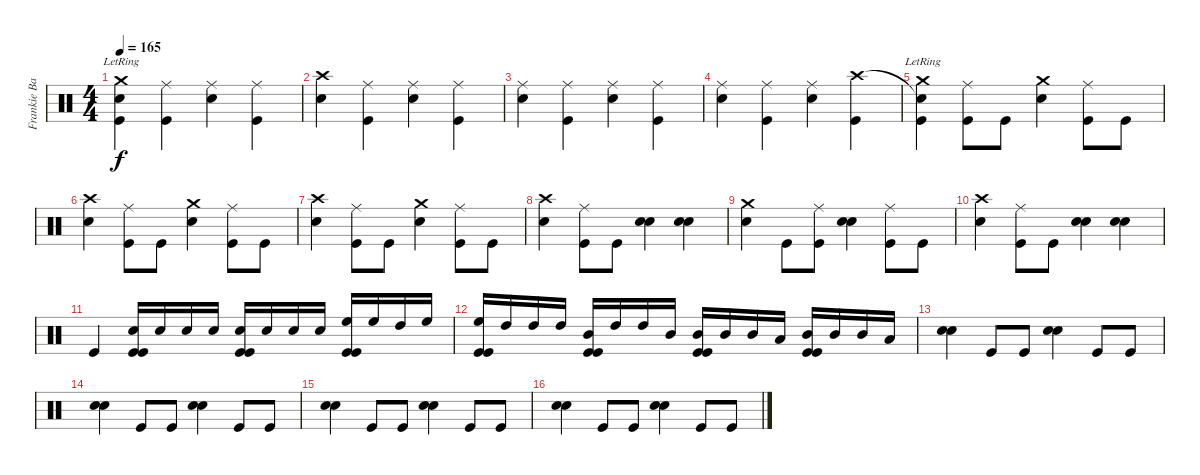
\track ("Frankie Banali/Drums" "Frankie Ba") {instrument percussion}
\staff {score}
\articulation defaults
\ts (4 4)
\tempo 165
\clef neutral
\ks c
("Kick (hit)" "Snare (hit)"{t} "Crash medium (hit)"{lr}).4{dy f} ("Kick (hit)" "Ride (middle)").4 ("Snare (hit) 2" "Ride (middle)").4 ("Kick (hit)" "Ride (middle)").4 |
("Snare (hit) 2" "Crash high (hit)").4 ("Kick (hit)" "Ride (middle)").4 ("Snare (hit) 2" "Ride (middle)").4 ("Kick (hit)" "Ride (middle)").4 |
("Snare (hit) 2" "Ride (middle)").4 ("Kick (hit)" "Ride (middle)").4 ("Snare (hit) 2" "Ride (middle)").4 ("Kick (hit)" "Ride (middle)").4 |
("Snare (hit) 2" "Ride (middle)").4 ("Kick (hit)" "Ride (middle)").4 ("Snare (hit) 2" "Ride (middle)").4 ("Kick (hit)" "Crash high (hit)").4 |
("Kick (hit)" "Snare (hit)"{t} "Crash medium (hit)"{lr}).4{volume 15} ("Kick (hit)" "Ride (middle)").8 "Kick (hit)".8 ("Snare (hit) 2" "Crash medium (hit)").4 ("Kick (hit)" "Ride (middle)").8 "Kick (hit)".8 |
("Snare (hit) 2" "Crash high (hit)").4{volume 14} ("Kick (hit)" "Ride (middle)").8 "Kick (hit)".8 ("Snare (hit) 2" "Crash medium (hit)").4 ("Kick (hit)" "Ride (middle)").8 "Kick (hit)".8 |
("Snare (hit) 2" "Crash high (hit)").4{volume 13} ("Kick (hit)" "Ride (middle)").8 "Kick (hit)".8 ("Snare (hit) 2" "Crash medium (hit)").4 ("Kick (hit)" "Ride (middle)").8 "Kick (hit)".8 |
("Snare (hit) 2" "Crash high (hit)").4{volume 12} ("Kick (hit)" "Ride (middle)").8 "Kick (hit)".8 ("Snare (hit) 2" "Snare (hit) 2").4 ("Snare (hit) 2" "Snare (hit) 2").4 |
("Snare (hit) 2" "Crash medium (hit)").4{volume 11} "Kick (hit)".8 ("Kick (hit)" "Ride (middle)").8 ("Snare (hit) 2" "Snare (hit) 2").4 ("Kick (hit)" "Ride (middle)").8 "Kick (hit)".8 |
("Snare (hit) 2" "Crash high (hit)").4{volume 10} ("Kick (hit)" "Ride (middle)").8 "Kick (hit)".8 ("Snare (hit) 2" "Snare (hit) 2").4 ("Snare (hit) 2" "Snare (hit) 2").4 |
"Kick (hit)".4{volume 9} ("Snare (hit) 2" "Kick (hit)" "Kick (hit)").16 "Snare (hit) 2".16 "Snare (hit) 2".16 "Snare (hit) 2".16 ("Snare (hit) 2" "Kick (hit)" "Kick (hit)").16 "Snare (hit) 2".16 "Snare (hit) 2".16 "Snare (hit) 2".16 ("High Floor Tom (hit)" "Kick (hit)" "Kick (hit)").16 "High Floor Tom (hit)".16 "High Tom (hit)".16 "High Floor Tom (hit)".16 |
("High Floor Tom (hit)" "Kick (hit)" "Kick (hit)").16{volume 6} "High Tom (hit)".16 "High Tom (hit)".16 "High Tom (hit)".16 ("Mid Tom (hit)" "Kick (hit)" "Kick (hit)").16 "High Tom (hit)".16 "High Tom (hit)".16 "Mid Tom (hit)".16 ("Mid Tom (hit)" "Kick (hit)" "Kick (hit)").16 "Mid Tom (hit)".16 "Mid Tom (hit)".16 "Low Tom (hit)".16 ("Mid Tom (hit)" "Kick (hit)" "Kick (hit)").16 "Mid Tom (hit)".16 "Mid Tom (hit)".16 "Low Tom (hit)".16 |
("Snare (hit) 2" "Snare (hit) 2").4{volume 5} "Kick (hit)".8 "Kick (hit)".8 ("Snare (hit) 2" "Snare (hit) 2").4 "Kick (hit)".8 "Kick (hit)".8 |
("Snare (hit) 2" "Snare (hit) 2").4{volume 4} "Kick (hit)".8 "Kick (hit)".8 ("Snare (hit) 2" "Snare (hit) 2").4 "Kick (hit)".8 "Kick (hit)".8 |
("Snare (hit) 2" "Snare (hit) 2").4{volume 3} "Kick (hit)".8 "Kick (hit)".8 ("Snare (hit) 2" "Snare (hit) 2").4 "Kick (hit)".8 "Kick (hit)".8 |
("Snare (hit) 2" "Snare (hit) 2").4 "Kick (hit)".8 "Kick (hit)".8 ("Snare (hit) 2" "Snare (hit) 2").4 "Kick (hit)".8 "Kick (hit)".8
